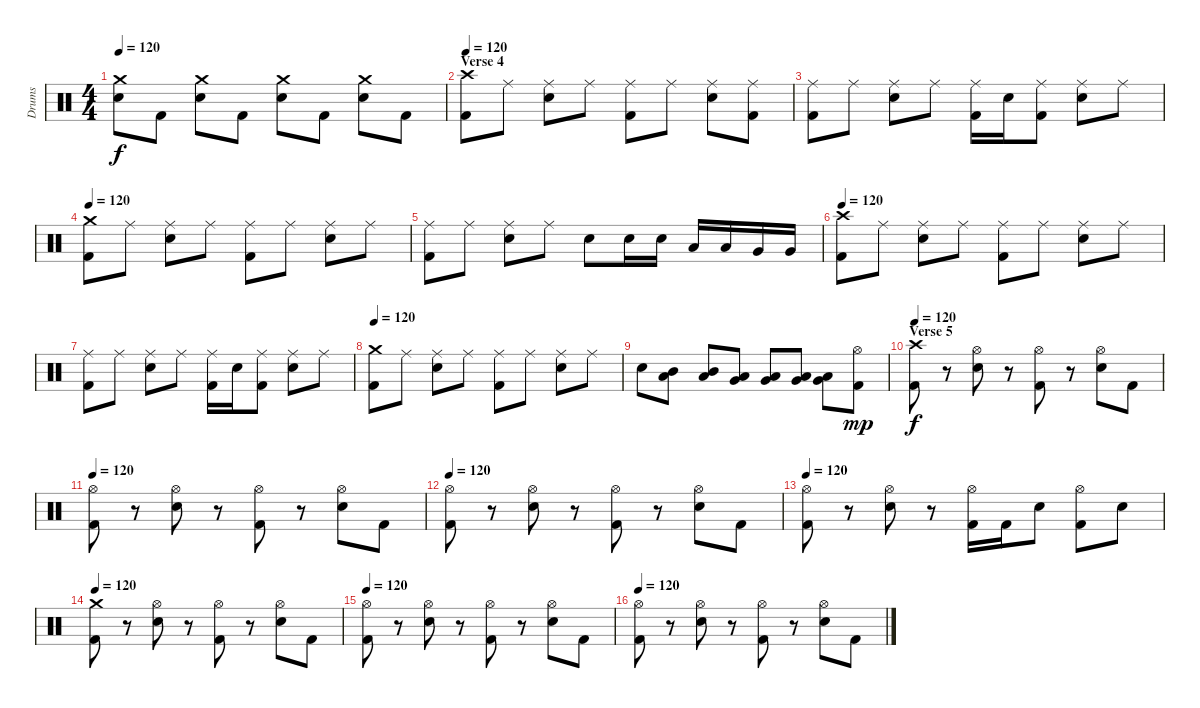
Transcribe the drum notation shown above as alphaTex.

\track ("Drums" "Drums") {instrument percussion}
\staff {score}
\articulation defaults
\ts (4 4)
\tempo 120
\clef neutral
\ks c
("Crash medium (hit)" "Electric Snare (hit)").8{dy f} "Kick (hit) 2".8 ("Crash medium (hit)" "Electric Snare (hit)").8 "Kick (hit) 2".8 ("Crash medium (hit)" "Electric Snare (hit)").8 "Kick (hit) 2".8 ("Crash medium (hit)" "Electric Snare (hit)").8 "Kick (hit) 2".8 |
\section ("" "Verse 4")
\tempo 120
("Crash high (hit)" "Kick (hit) 2").8 "Ride (middle)".8 ("Ride (middle)" "Electric Snare (hit)").8 "Ride (middle)".8 ("Ride (middle)" "Kick (hit) 2").8 "Ride (middle)".8 ("Ride (middle)" "Electric Snare (hit)").8 ("Ride (middle)" "Kick (hit) 2").8 |
("Ride (middle)" "Kick (hit) 2").8 "Ride (middle)".8 ("Ride (middle)" "Electric Snare (hit)").8 "Ride (middle)".8 ("Ride (middle)" "Kick (hit) 2").16 "Electric Snare (hit)".16 ("Ride (middle)" "Kick (hit) 2").8 ("Ride (middle)" "Electric Snare (hit)").8 "Ride (middle)".8 |
\tempo 120
("Crash medium (hit)" "Kick (hit) 2").8 "Ride (middle)".8 ("Ride (middle)" "Electric Snare (hit)").8 "Ride (middle)".8 ("Ride (middle)" "Kick (hit) 2").8 "Ride (middle)".8 ("Ride (middle)" "Electric Snare (hit)").8 "Ride (middle)".8 |
("Ride (middle)" "Kick (hit) 2").8 "Ride (middle)".8 ("Ride (middle)" "Electric Snare (hit)").8 "Ride (middle)".8 "Electric Snare (hit)".8 "Electric Snare (hit)".16 "Electric Snare (hit)".16 "Low Tom (hit)".16 "Low Tom (hit)".16 "Very Low Tom (hit)".16 "Very Low Tom (hit)".16 |
\tempo 120
("Crash high (hit)" "Kick (hit) 2").8 "Ride (middle)".8 ("Ride (middle)" "Electric Snare (hit)").8 "Ride (middle)".8 ("Ride (middle)" "Kick (hit) 2").8 "Ride (middle)".8 ("Ride (middle)" "Electric Snare (hit)").8 "Ride (middle)".8 |
("Ride (middle)" "Kick (hit) 2").8 "Ride (middle)".8 ("Ride (middle)" "Electric Snare (hit)").8 "Ride (middle)".8 ("Ride (middle)" "Kick (hit) 2").16 "Electric Snare (hit)".16 ("Ride (middle)" "Kick (hit) 2").8 ("Ride (middle)" "Electric Snare (hit)").8 "Ride (middle)".8 |
\tempo 120
("Crash medium (hit)" "Kick (hit) 2").8 "Ride (middle)".8 ("Ride (middle)" "Electric Snare (hit)").8 "Ride (middle)".8 ("Ride (middle)" "Kick (hit) 2").8 "Ride (middle)".8 ("Ride (middle)" "Electric Snare (hit)").8 "Ride (middle)".8 |
"Electric Snare (hit)".8 ("Mid Tom (hit)" "Low Tom (hit)").8 ("Mid Tom (hit)" "Low Tom (hit)").8 ("Low Tom (hit)" "Very Low Tom (hit)").8 ("Low Tom (hit)" "Very Low Tom (hit)").8 ("Very Low Tom (hit)" "Low Floor Tom (hit)").8 ("Very Low Tom (hit)" "Low Floor Tom (hit)").8 ("Hi-Hat (open)" "Kick (hit) 2").8{dy mp} |
\section ("" "Verse 5")
\tempo 120
("Crash high (hit)" "Kick (hit) 2").8{dy f} r.8 ("Hi-Hat (open)" "Electric Snare (hit)").8 r.8 ("Hi-Hat (open)" "Kick (hit) 2").8 r.8 ("Hi-Hat (open)" "Electric Snare (hit)").8 "Kick (hit) 2".8 |
\tempo 120
("Hi-Hat (open)" "Kick (hit) 2").8 r.8 ("Hi-Hat (open)" "Electric Snare (hit)").8 r.8 ("Hi-Hat (open)" "Kick (hit) 2").8 r.8 ("Hi-Hat (open)" "Electric Snare (hit)").8 "Kick (hit) 2".8 |
\tempo 120
("Hi-Hat (open)" "Kick (hit) 2").8 r.8 ("Hi-Hat (open)" "Electric Snare (hit)").8 r.8 ("Hi-Hat (open)" "Kick (hit) 2").8 r.8 ("Hi-Hat (open)" "Electric Snare (hit)").8 "Kick (hit) 2".8 |
\tempo 120
("Hi-Hat (open)" "Kick (hit) 2").8 r.8 ("Hi-Hat (open)" "Electric Snare (hit)").8 r.8 ("Hi-Hat (open)" "Kick (hit) 2").16 "Kick (hit) 2".16 "Electric Snare (hit)".8 ("Hi-Hat (open)" "Kick (hit) 2").8 "Electric Snare (hit)".8 |
\tempo 120
("Crash medium (hit)" "Kick (hit) 2").8 r.8 ("Hi-Hat (open)" "Electric Snare (hit)").8 r.8 ("Hi-Hat (open)" "Kick (hit) 2").8 r.8 ("Hi-Hat (open)" "Electric Snare (hit)").8 "Kick (hit) 2".8 |
\tempo 120
("Hi-Hat (open)" "Kick (hit) 2").8 r.8 ("Hi-Hat (open)" "Electric Snare (hit)").8 r.8 ("Hi-Hat (open)" "Kick (hit) 2").8 r.8 ("Hi-Hat (open)" "Electric Snare (hit)").8 "Kick (hit) 2".8 |
\tempo 120
("Hi-Hat (open)" "Kick (hit) 2").8 r.8 ("Hi-Hat (open)" "Electric Snare (hit)").8 r.8 ("Hi-Hat (open)" "Kick (hit) 2").8 r.8 ("Hi-Hat (open)" "Electric Snare (hit)").8 "Kick (hit) 2".8
